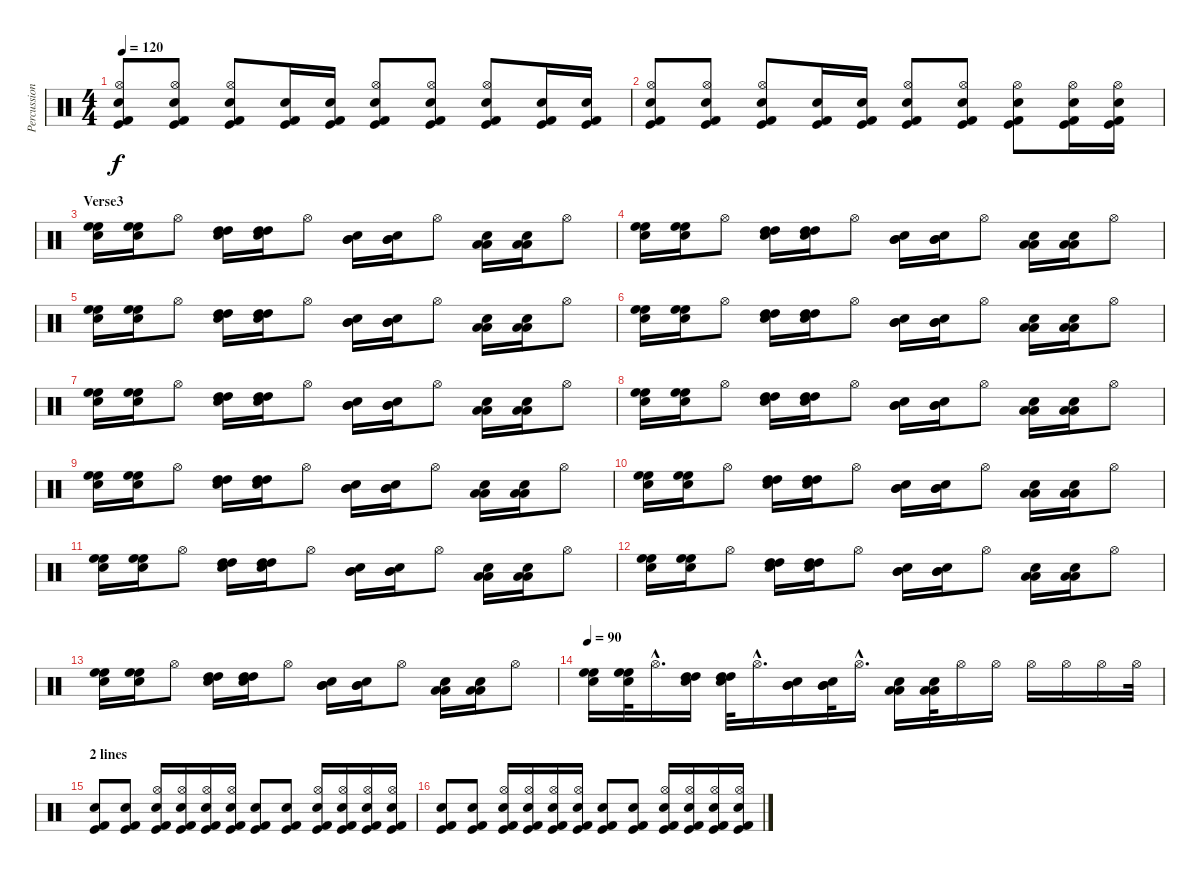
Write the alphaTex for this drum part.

\track ("Percussion" "Percussion") {instrument percussion}
\staff {score}
\articulation defaults
\ts (4 4)
\tempo 120
\clef neutral
\ks c
("Snare (hit) 2" "Hi-Hat (open)" "Kick (hit) 2" "Kick (hit)").8{dy f} ("Snare (hit) 2" "Hi-Hat (open)" "Kick (hit) 2" "Kick (hit)").8 ("Snare (hit) 2" "Hi-Hat (open)" "Kick (hit) 2" "Kick (hit)").8 ("Kick (hit) 2" "Kick (hit)" "Electric Snare (hit)").16 ("Kick (hit) 2" "Kick (hit)" "Electric Snare (hit)").16 ("Snare (hit) 2" "Hi-Hat (open)" "Kick (hit) 2" "Kick (hit)").8 ("Snare (hit) 2" "Hi-Hat (open)" "Kick (hit) 2" "Kick (hit)").8 ("Snare (hit) 2" "Hi-Hat (open)" "Kick (hit) 2" "Kick (hit)").8 ("Kick (hit) 2" "Kick (hit)" "Electric Snare (hit)").16 ("Kick (hit) 2" "Kick (hit)" "Electric Snare (hit)").16 |
("Snare (hit) 2" "Hi-Hat (open)" "Kick (hit) 2" "Kick (hit)").8 ("Snare (hit) 2" "Hi-Hat (open)" "Kick (hit) 2" "Kick (hit)").8 ("Snare (hit) 2" "Hi-Hat (open)" "Kick (hit) 2" "Kick (hit)").8 ("Kick (hit) 2" "Kick (hit)" "Electric Snare (hit)").16 ("Kick (hit) 2" "Kick (hit)" "Electric Snare (hit)").16 ("Snare (hit) 2" "Hi-Hat (open)" "Kick (hit) 2" "Kick (hit)").8 ("Snare (hit) 2" "Hi-Hat (open)" "Kick (hit) 2" "Kick (hit)").8 ("Snare (hit) 2" "Hi-Hat (open)" "Kick (hit) 2" "Kick (hit)").8 ("Kick (hit) 2" "Kick (hit)" "Electric Snare (hit)" "Hi-Hat (open)").16 ("Kick (hit) 2" "Kick (hit)" "Electric Snare (hit)" "Hi-Hat (open)").16 |
\section ("" "Verse3")
("Snare (hit) 2" "High Floor Tom (hit)" "High Floor Tom (hit)").16 ("Snare (hit) 2" "High Floor Tom (hit)" "High Floor Tom (hit)").16 "Hi-Hat (open)".8 ("Snare (hit) 2" "High Tom (hit)" "High Tom (hit)").16 ("Snare (hit) 2" "High Tom (hit)" "High Tom (hit)").16 "Hi-Hat (open)".8 ("Snare (hit) 2" "Mid Tom (hit)" "Mid Tom (hit)").16 ("Snare (hit) 2" "Mid Tom (hit)" "Mid Tom (hit)").16 "Hi-Hat (open)".8 ("Snare (hit) 2" "Low Tom (hit)" "Low Tom (hit)").16 ("Snare (hit) 2" "Low Tom (hit)" "Low Tom (hit)").16 "Hi-Hat (open)".8 |
("Snare (hit) 2" "High Floor Tom (hit)" "High Floor Tom (hit)").16 ("Snare (hit) 2" "High Floor Tom (hit)" "High Floor Tom (hit)").16 "Hi-Hat (open)".8 ("Snare (hit) 2" "High Tom (hit)" "High Tom (hit)").16 ("Snare (hit) 2" "High Tom (hit)" "High Tom (hit)").16 "Hi-Hat (open)".8 ("Snare (hit) 2" "Mid Tom (hit)" "Mid Tom (hit)").16 ("Snare (hit) 2" "Mid Tom (hit)" "Mid Tom (hit)").16 "Hi-Hat (open)".8 ("Snare (hit) 2" "Low Tom (hit)" "Low Tom (hit)").16 ("Snare (hit) 2" "Low Tom (hit)" "Low Tom (hit)").16 "Hi-Hat (open)".8 |
("Snare (hit) 2" "High Floor Tom (hit)" "High Floor Tom (hit)").16 ("Snare (hit) 2" "High Floor Tom (hit)" "High Floor Tom (hit)").16 "Hi-Hat (open)".8 ("Snare (hit) 2" "High Tom (hit)" "High Tom (hit)").16 ("Snare (hit) 2" "High Tom (hit)" "High Tom (hit)").16 "Hi-Hat (open)".8 ("Snare (hit) 2" "Mid Tom (hit)" "Mid Tom (hit)").16 ("Snare (hit) 2" "Mid Tom (hit)" "Mid Tom (hit)").16 "Hi-Hat (open)".8 ("Snare (hit) 2" "Low Tom (hit)" "Low Tom (hit)").16 ("Snare (hit) 2" "Low Tom (hit)" "Low Tom (hit)").16 "Hi-Hat (open)".8 |
("Snare (hit) 2" "High Floor Tom (hit)" "High Floor Tom (hit)").16 ("Snare (hit) 2" "High Floor Tom (hit)" "High Floor Tom (hit)").16 "Hi-Hat (open)".8 ("Snare (hit) 2" "High Tom (hit)" "High Tom (hit)").16 ("Snare (hit) 2" "High Tom (hit)" "High Tom (hit)").16 "Hi-Hat (open)".8 ("Snare (hit) 2" "Mid Tom (hit)" "Mid Tom (hit)").16 ("Snare (hit) 2" "Mid Tom (hit)" "Mid Tom (hit)").16 "Hi-Hat (open)".8 ("Snare (hit) 2" "Low Tom (hit)" "Low Tom (hit)").16 ("Snare (hit) 2" "Low Tom (hit)" "Low Tom (hit)").16 "Hi-Hat (open)".8 |
("Snare (hit) 2" "High Floor Tom (hit)" "High Floor Tom (hit)").16 ("Snare (hit) 2" "High Floor Tom (hit)" "High Floor Tom (hit)").16 "Hi-Hat (open)".8 ("Snare (hit) 2" "High Tom (hit)" "High Tom (hit)").16 ("Snare (hit) 2" "High Tom (hit)" "High Tom (hit)").16 "Hi-Hat (open)".8 ("Snare (hit) 2" "Mid Tom (hit)" "Mid Tom (hit)").16 ("Snare (hit) 2" "Mid Tom (hit)" "Mid Tom (hit)").16 "Hi-Hat (open)".8 ("Snare (hit) 2" "Low Tom (hit)" "Low Tom (hit)").16 ("Snare (hit) 2" "Low Tom (hit)" "Low Tom (hit)").16 "Hi-Hat (open)".8 |
("Snare (hit) 2" "High Floor Tom (hit)" "High Floor Tom (hit)").16 ("Snare (hit) 2" "High Floor Tom (hit)" "High Floor Tom (hit)").16 "Hi-Hat (open)".8 ("Snare (hit) 2" "High Tom (hit)" "High Tom (hit)").16 ("Snare (hit) 2" "High Tom (hit)" "High Tom (hit)").16 "Hi-Hat (open)".8 ("Snare (hit) 2" "Mid Tom (hit)" "Mid Tom (hit)").16 ("Snare (hit) 2" "Mid Tom (hit)" "Mid Tom (hit)").16 "Hi-Hat (open)".8 ("Snare (hit) 2" "Low Tom (hit)" "Low Tom (hit)").16 ("Snare (hit) 2" "Low Tom (hit)" "Low Tom (hit)").16 "Hi-Hat (open)".8 |
("Snare (hit) 2" "High Floor Tom (hit)" "High Floor Tom (hit)").16 ("Snare (hit) 2" "High Floor Tom (hit)" "High Floor Tom (hit)").16 "Hi-Hat (open)".8 ("Snare (hit) 2" "High Tom (hit)" "High Tom (hit)").16 ("Snare (hit) 2" "High Tom (hit)" "High Tom (hit)").16 "Hi-Hat (open)".8 ("Snare (hit) 2" "Mid Tom (hit)" "Mid Tom (hit)").16 ("Snare (hit) 2" "Mid Tom (hit)" "Mid Tom (hit)").16 "Hi-Hat (open)".8 ("Snare (hit) 2" "Low Tom (hit)" "Low Tom (hit)").16 ("Snare (hit) 2" "Low Tom (hit)" "Low Tom (hit)").16 "Hi-Hat (open)".8 |
("Snare (hit) 2" "High Floor Tom (hit)" "High Floor Tom (hit)").16 ("Snare (hit) 2" "High Floor Tom (hit)" "High Floor Tom (hit)").16 "Hi-Hat (open)".8 ("Snare (hit) 2" "High Tom (hit)" "High Tom (hit)").16 ("Snare (hit) 2" "High Tom (hit)" "High Tom (hit)").16 "Hi-Hat (open)".8 ("Snare (hit) 2" "Mid Tom (hit)" "Mid Tom (hit)").16 ("Snare (hit) 2" "Mid Tom (hit)" "Mid Tom (hit)").16 "Hi-Hat (open)".8 ("Snare (hit) 2" "Low Tom (hit)" "Low Tom (hit)").16 ("Snare (hit) 2" "Low Tom (hit)" "Low Tom (hit)").16 "Hi-Hat (open)".8 |
("Snare (hit) 2" "High Floor Tom (hit)" "High Floor Tom (hit)").16 ("Snare (hit) 2" "High Floor Tom (hit)" "High Floor Tom (hit)").16 "Hi-Hat (open)".8 ("Snare (hit) 2" "High Tom (hit)" "High Tom (hit)").16 ("Snare (hit) 2" "High Tom (hit)" "High Tom (hit)").16 "Hi-Hat (open)".8 ("Snare (hit) 2" "Mid Tom (hit)" "Mid Tom (hit)").16 ("Snare (hit) 2" "Mid Tom (hit)" "Mid Tom (hit)").16 "Hi-Hat (open)".8 ("Snare (hit) 2" "Low Tom (hit)" "Low Tom (hit)").16 ("Snare (hit) 2" "Low Tom (hit)" "Low Tom (hit)").16 "Hi-Hat (open)".8 |
("Snare (hit) 2" "High Floor Tom (hit)" "High Floor Tom (hit)").16 ("Snare (hit) 2" "High Floor Tom (hit)" "High Floor Tom (hit)").16 "Hi-Hat (open)".8 ("Snare (hit) 2" "High Tom (hit)" "High Tom (hit)").16 ("Snare (hit) 2" "High Tom (hit)" "High Tom (hit)").16 "Hi-Hat (open)".8 ("Snare (hit) 2" "Mid Tom (hit)" "Mid Tom (hit)").16 ("Snare (hit) 2" "Mid Tom (hit)" "Mid Tom (hit)").16 "Hi-Hat (open)".8 ("Snare (hit) 2" "Low Tom (hit)" "Low Tom (hit)").16 ("Snare (hit) 2" "Low Tom (hit)" "Low Tom (hit)").16 "Hi-Hat (open)".8 |
("Snare (hit) 2" "High Floor Tom (hit)" "High Floor Tom (hit)").16 ("Snare (hit) 2" "High Floor Tom (hit)" "High Floor Tom (hit)").16 "Hi-Hat (open)".8 ("Snare (hit) 2" "High Tom (hit)" "High Tom (hit)").16 ("Snare (hit) 2" "High Tom (hit)" "High Tom (hit)").16 "Hi-Hat (open)".8 ("Snare (hit) 2" "Mid Tom (hit)" "Mid Tom (hit)").16 ("Snare (hit) 2" "Mid Tom (hit)" "Mid Tom (hit)").16 "Hi-Hat (open)".8 ("Snare (hit) 2" "Low Tom (hit)" "Low Tom (hit)").16 ("Snare (hit) 2" "Low Tom (hit)" "Low Tom (hit)").16 "Hi-Hat (open)".8 |
\tempo 90
("Snare (hit) 2" "High Floor Tom (hit)" "High Floor Tom (hit)").16 ("Snare (hit) 2" "High Floor Tom (hit)" "High Floor Tom (hit)").32 "Hi-Hat (open)"{hac}.16{d} ("Snare (hit) 2" "High Tom (hit)" "High Tom (hit)").16 ("Snare (hit) 2" "High Tom (hit)" "High Tom (hit)").32 "Hi-Hat (open)"{hac}.16{d} ("Snare (hit) 2" "Mid Tom (hit)" "Mid Tom (hit)").16 ("Snare (hit) 2" "Mid Tom (hit)" "Mid Tom (hit)").32 "Hi-Hat (open)"{hac}.16{d} ("Snare (hit) 2" "Low Tom (hit)" "Low Tom (hit)").16 ("Snare (hit) 2" "Low Tom (hit)" "Low Tom (hit)").32 "Hi-Hat (open)".16 "Hi-Hat (open)".16 "Hi-Hat (open)".16 "Hi-Hat (open)".16 "Hi-Hat (open)".16 "Hi-Hat (open)".32 |
\section ("" "2 lines")
("Kick (hit) 2" "Kick (hit)" "Electric Snare (hit)").8 ("Kick (hit) 2" "Kick (hit)" "Electric Snare (hit)").8 ("Snare (hit) 2" "Hi-Hat (open)" "Kick (hit) 2" "Kick (hit)").16 ("Snare (hit) 2" "Hi-Hat (open)" "Kick (hit) 2" "Kick (hit)").16 ("Snare (hit) 2" "Hi-Hat (open)" "Kick (hit) 2" "Kick (hit)").16 ("Snare (hit) 2" "Hi-Hat (open)" "Kick (hit) 2" "Kick (hit)").16 ("Kick (hit) 2" "Kick (hit)" "Electric Snare (hit)").8 ("Kick (hit) 2" "Kick (hit)" "Electric Snare (hit)").8 ("Snare (hit) 2" "Hi-Hat (open)" "Kick (hit) 2" "Kick (hit)").16 ("Snare (hit) 2" "Hi-Hat (open)" "Kick (hit) 2" "Kick (hit)").16 ("Snare (hit) 2" "Hi-Hat (open)" "Kick (hit) 2" "Kick (hit)").16 ("Snare (hit) 2" "Hi-Hat (open)" "Kick (hit) 2" "Kick (hit)").16 |
("Kick (hit) 2" "Kick (hit)" "Electric Snare (hit)").8 ("Kick (hit) 2" "Kick (hit)" "Electric Snare (hit)").8 ("Snare (hit) 2" "Hi-Hat (open)" "Kick (hit) 2" "Kick (hit)").16 ("Snare (hit) 2" "Hi-Hat (open)" "Kick (hit) 2" "Kick (hit)").16 ("Snare (hit) 2" "Hi-Hat (open)" "Kick (hit) 2" "Kick (hit)").16 ("Snare (hit) 2" "Hi-Hat (open)" "Kick (hit) 2" "Kick (hit)").16 ("Kick (hit) 2" "Kick (hit)" "Electric Snare (hit)").8 ("Kick (hit) 2" "Kick (hit)" "Electric Snare (hit)").8 ("Snare (hit) 2" "Hi-Hat (open)" "Kick (hit) 2" "Kick (hit)").16 ("Snare (hit) 2" "Hi-Hat (open)" "Kick (hit) 2" "Kick (hit)").16 ("Snare (hit) 2" "Hi-Hat (open)" "Kick (hit) 2" "Kick (hit)").16 ("Snare (hit) 2" "Hi-Hat (open)" "Kick (hit) 2" "Kick (hit)").16
